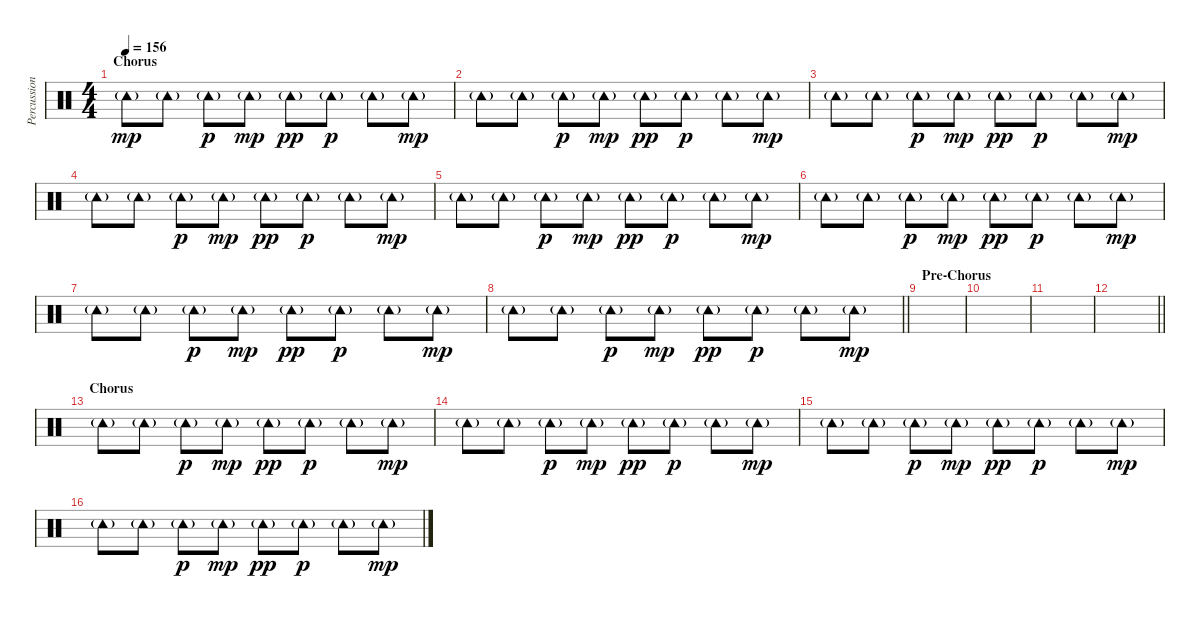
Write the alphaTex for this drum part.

\track ("Percussion 2" "Percussion") {instrument percussion}
\staff {score}
\articulation defaults
\ts (4 4)
\section ("" "Chorus")
\tempo 156
\clef neutral
\ks c "Tambourine (hit)"{g}.8{dy mp} "Tambourine (hit)"{g}.8 "Tambourine (hit)"{g}.8{dy p} "Tambourine (hit)"{g}.8{dy mp} "Tambourine (hit)"{g}.8{dy pp} "Tambourine (hit)"{g}.8{dy p} "Tambourine (hit)"{g}.8 "Tambourine (hit)"{g}.8{dy mp}
|
"Tambourine (hit)"{g}.8 "Tambourine (hit)"{g}.8 "Tambourine (hit)"{g}.8{dy p} "Tambourine (hit)"{g}.8{dy mp} "Tambourine (hit)"{g}.8{dy pp} "Tambourine (hit)"{g}.8{dy p} "Tambourine (hit)"{g}.8 "Tambourine (hit)"{g}.8{dy mp} |
"Tambourine (hit)"{g}.8 "Tambourine (hit)"{g}.8 "Tambourine (hit)"{g}.8{dy p} "Tambourine (hit)"{g}.8{dy mp} "Tambourine (hit)"{g}.8{dy pp} "Tambourine (hit)"{g}.8{dy p} "Tambourine (hit)"{g}.8 "Tambourine (hit)"{g}.8{dy mp} |
"Tambourine (hit)"{g}.8 "Tambourine (hit)"{g}.8 "Tambourine (hit)"{g}.8{dy p} "Tambourine (hit)"{g}.8{dy mp} "Tambourine (hit)"{g}.8{dy pp} "Tambourine (hit)"{g}.8{dy p} "Tambourine (hit)"{g}.8 "Tambourine (hit)"{g}.8{dy mp} |
"Tambourine (hit)"{g}.8 "Tambourine (hit)"{g}.8 "Tambourine (hit)"{g}.8{dy p} "Tambourine (hit)"{g}.8{dy mp} "Tambourine (hit)"{g}.8{dy pp} "Tambourine (hit)"{g}.8{dy p} "Tambourine (hit)"{g}.8 "Tambourine (hit)"{g}.8{dy mp} |
"Tambourine (hit)"{g}.8 "Tambourine (hit)"{g}.8 "Tambourine (hit)"{g}.8{dy p} "Tambourine (hit)"{g}.8{dy mp} "Tambourine (hit)"{g}.8{dy pp} "Tambourine (hit)"{g}.8{dy p} "Tambourine (hit)"{g}.8 "Tambourine (hit)"{g}.8{dy mp} |
"Tambourine (hit)"{g}.8 "Tambourine (hit)"{g}.8 "Tambourine (hit)"{g}.8{dy p} "Tambourine (hit)"{g}.8{dy mp} "Tambourine (hit)"{g}.8{dy pp} "Tambourine (hit)"{g}.8{dy p} "Tambourine (hit)"{g}.8 "Tambourine (hit)"{g}.8{dy mp} |
\barLineRight lightlight "Tambourine (hit)"{g}.8 "Tambourine (hit)"{g}.8 "Tambourine (hit)"{g}.8{dy p} "Tambourine (hit)"{g}.8{dy mp} "Tambourine (hit)"{g}.8{dy pp} "Tambourine (hit)"{g}.8{dy p} "Tambourine (hit)"{g}.8 "Tambourine (hit)"{g}.8{dy mp}
|
\section ("" "Pre-Chorus")
|
|
|
\barLineRight lightlight
|
\section ("" "Chorus")
"Tambourine (hit)"{g}.8 "Tambourine (hit)"{g}.8 "Tambourine (hit)"{g}.8{dy p} "Tambourine (hit)"{g}.8{dy mp} "Tambourine (hit)"{g}.8{dy pp} "Tambourine (hit)"{g}.8{dy p} "Tambourine (hit)"{g}.8 "Tambourine (hit)"{g}.8{dy mp} |
"Tambourine (hit)"{g}.8 "Tambourine (hit)"{g}.8 "Tambourine (hit)"{g}.8{dy p} "Tambourine (hit)"{g}.8{dy mp} "Tambourine (hit)"{g}.8{dy pp} "Tambourine (hit)"{g}.8{dy p} "Tambourine (hit)"{g}.8 "Tambourine (hit)"{g}.8{dy mp} |
"Tambourine (hit)"{g}.8 "Tambourine (hit)"{g}.8 "Tambourine (hit)"{g}.8{dy p} "Tambourine (hit)"{g}.8{dy mp} "Tambourine (hit)"{g}.8{dy pp} "Tambourine (hit)"{g}.8{dy p} "Tambourine (hit)"{g}.8 "Tambourine (hit)"{g}.8{dy mp} |
"Tambourine (hit)"{g}.8 "Tambourine (hit)"{g}.8 "Tambourine (hit)"{g}.8{dy p} "Tambourine (hit)"{g}.8{dy mp} "Tambourine (hit)"{g}.8{dy pp} "Tambourine (hit)"{g}.8{dy p} "Tambourine (hit)"{g}.8 "Tambourine (hit)"{g}.8{dy mp}
